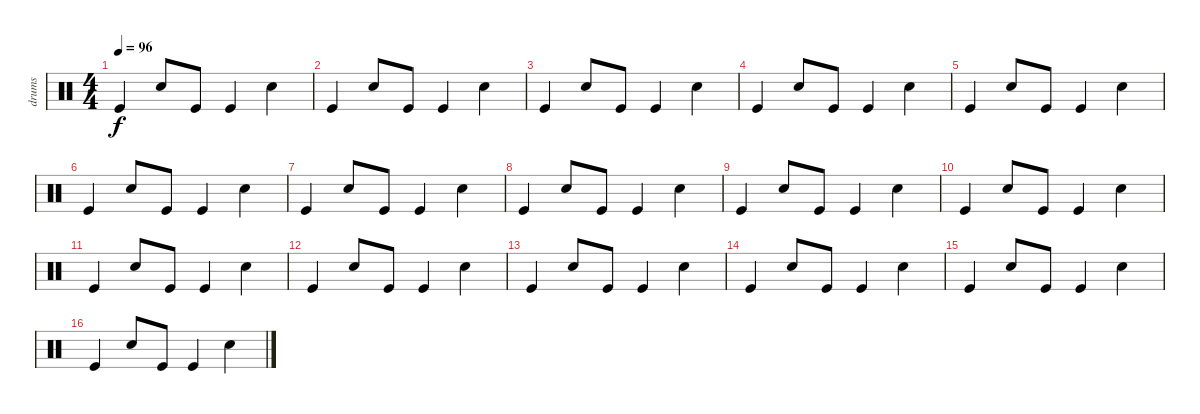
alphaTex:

\track ("drums" "drums") {instrument percussion}
\staff {score}
\articulation defaults
\ts (4 4)
\tempo 96
\clef neutral
\ks c "Kick (hit)".4{dy f} "Snare (hit) 2".8 "Kick (hit)".8 "Kick (hit)".4 "Snare (hit) 2".4
|
"Kick (hit)".4 "Snare (hit) 2".8 "Kick (hit)".8 "Kick (hit)".4 "Snare (hit) 2".4 |
"Kick (hit)".4 "Snare (hit) 2".8 "Kick (hit)".8 "Kick (hit)".4 "Snare (hit) 2".4 |
"Kick (hit)".4 "Snare (hit) 2".8 "Kick (hit)".8 "Kick (hit)".4 "Snare (hit) 2".4 |
"Kick (hit)".4 "Snare (hit) 2".8 "Kick (hit)".8 "Kick (hit)".4 "Snare (hit) 2".4 |
"Kick (hit)".4 "Snare (hit) 2".8 "Kick (hit)".8 "Kick (hit)".4 "Snare (hit) 2".4 |
"Kick (hit)".4 "Snare (hit) 2".8 "Kick (hit)".8 "Kick (hit)".4 "Snare (hit) 2".4 |
"Kick (hit)".4 "Snare (hit) 2".8 "Kick (hit)".8 "Kick (hit)".4 "Snare (hit) 2".4 |
"Kick (hit)".4 "Snare (hit) 2".8 "Kick (hit)".8 "Kick (hit)".4 "Snare (hit) 2".4 |
"Kick (hit)".4 "Snare (hit) 2".8 "Kick (hit)".8 "Kick (hit)".4 "Snare (hit) 2".4 |
"Kick (hit)".4 "Snare (hit) 2".8 "Kick (hit)".8 "Kick (hit)".4 "Snare (hit) 2".4 |
"Kick (hit)".4 "Snare (hit) 2".8 "Kick (hit)".8 "Kick (hit)".4 "Snare (hit) 2".4 |
"Kick (hit)".4 "Snare (hit) 2".8 "Kick (hit)".8 "Kick (hit)".4 "Snare (hit) 2".4 |
"Kick (hit)".4 "Snare (hit) 2".8 "Kick (hit)".8 "Kick (hit)".4 "Snare (hit) 2".4 |
"Kick (hit)".4 "Snare (hit) 2".8 "Kick (hit)".8 "Kick (hit)".4 "Snare (hit) 2".4 |
"Kick (hit)".4 "Snare (hit) 2".8 "Kick (hit)".8 "Kick (hit)".4 "Snare (hit) 2".4
